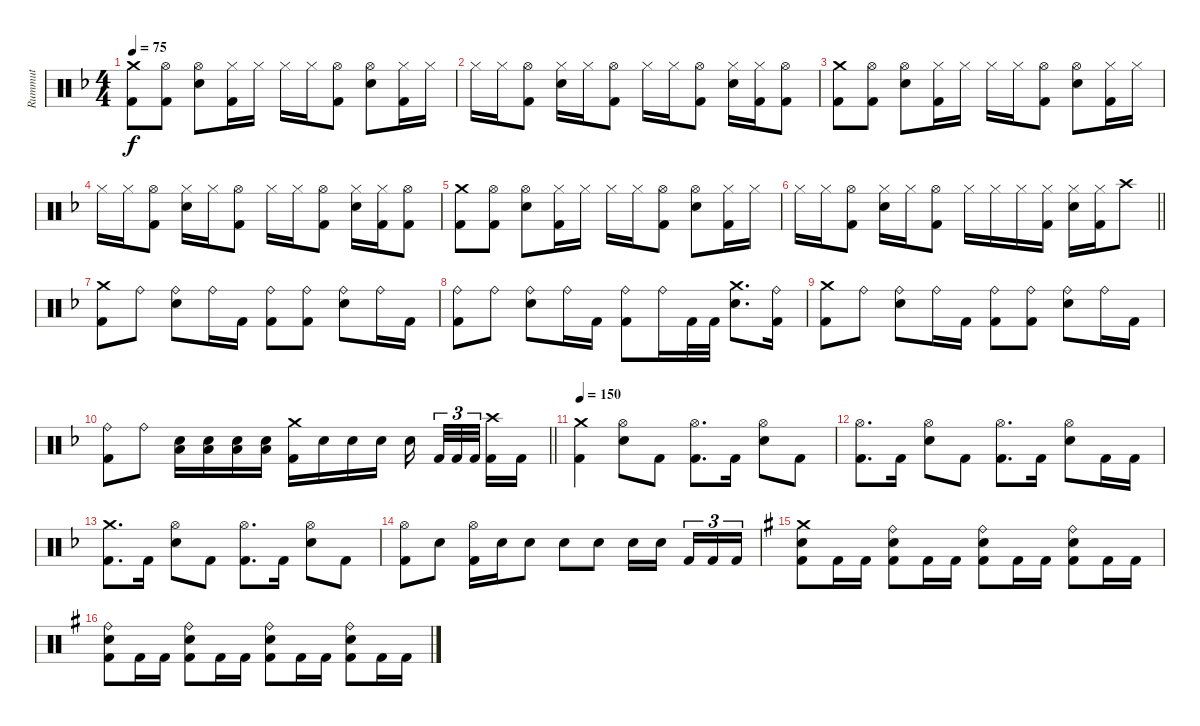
\track ("Rummut" "Rummut") {instrument percussion}
\staff {score}
\articulation defaults
\ts (4 4)
\tempo 75
\clef neutral
\ks dminor
("Crash medium (hit)" "Kick (hit) 2").8{dy f} ("Hi-Hat (open)" "Kick (hit) 2").8 ("Hi-Hat (open)" "Snare (hit) 2").8 ("Hi-Hat (closed)" "Kick (hit) 2").16 "Hi-Hat (closed)".16 "Hi-Hat (closed)".16 "Hi-Hat (closed)".16 ("Hi-Hat (open)" "Kick (hit) 2").8 ("Hi-Hat (open)" "Snare (hit) 2").8 ("Hi-Hat (closed)" "Kick (hit) 2").16 "Hi-Hat (closed)".16 |
"Hi-Hat (closed)".16 "Hi-Hat (closed)".16 ("Hi-Hat (open)" "Kick (hit) 2").8 ("Hi-Hat (closed)" "Snare (hit) 2").16 "Hi-Hat (closed)".16 ("Hi-Hat (open)" "Kick (hit) 2").8 "Hi-Hat (closed)".16 "Hi-Hat (closed)".16 ("Hi-Hat (open)" "Kick (hit) 2").8 ("Hi-Hat (closed)" "Snare (hit) 2").16 ("Hi-Hat (closed)" "Kick (hit) 2").16 ("Hi-Hat (open)" "Kick (hit) 2").8 |
("Crash medium (hit)" "Kick (hit) 2").8 ("Hi-Hat (open)" "Kick (hit) 2").8 ("Hi-Hat (open)" "Snare (hit) 2").8 ("Hi-Hat (closed)" "Kick (hit) 2").16 "Hi-Hat (closed)".16 "Hi-Hat (closed)".16 "Hi-Hat (closed)".16 ("Hi-Hat (open)" "Kick (hit) 2").8 ("Hi-Hat (open)" "Snare (hit) 2").8 ("Hi-Hat (closed)" "Kick (hit) 2").16 "Hi-Hat (closed)".16 |
"Hi-Hat (closed)".16 "Hi-Hat (closed)".16 ("Hi-Hat (open)" "Kick (hit) 2").8 ("Hi-Hat (closed)" "Snare (hit) 2").16 "Hi-Hat (closed)".16 ("Hi-Hat (open)" "Kick (hit) 2").8 "Hi-Hat (closed)".16 "Hi-Hat (closed)".16 ("Hi-Hat (open)" "Kick (hit) 2").8 ("Hi-Hat (closed)" "Snare (hit) 2").16 ("Hi-Hat (closed)" "Kick (hit) 2").16 ("Hi-Hat (open)" "Kick (hit) 2").8 |
("Crash medium (hit)" "Kick (hit) 2").8 ("Hi-Hat (open)" "Kick (hit) 2").8 ("Hi-Hat (open)" "Snare (hit) 2").8 ("Hi-Hat (closed)" "Kick (hit) 2").16 "Hi-Hat (closed)".16 "Hi-Hat (closed)".16 "Hi-Hat (closed)".16 ("Hi-Hat (open)" "Kick (hit) 2").8 ("Hi-Hat (open)" "Snare (hit) 2").8 ("Hi-Hat (closed)" "Kick (hit) 2").16 "Hi-Hat (closed)".16 |
\barLineRight lightlight "Hi-Hat (closed)".16 "Hi-Hat (closed)".16
("Hi-Hat (open)" "Kick (hit) 2").8 ("Hi-Hat (closed)" "Snare (hit) 2").16 "Hi-Hat (closed)".16 ("Hi-Hat (open)" "Kick (hit) 2").8 "Hi-Hat (closed)".16 "Hi-Hat (closed)".16 "Hi-Hat (closed)".16 ("Hi-Hat (closed)" "Kick (hit) 2").16 ("Hi-Hat (closed)" "Snare (hit) 2").16 ("Hi-Hat (closed)" "Kick (hit) 2").16 "Crash high (hit)".8 |
("Crash medium (hit)" "Kick (hit) 2").8 "Ride (bell)".8 ("Ride (bell)" "Snare (hit) 2").8 "Ride (bell)".16 "Kick (hit) 2".16 ("Ride (bell)" "Kick (hit) 2").8 ("Ride (bell)" "Kick (hit) 2").8 ("Ride (bell)" "Snare (hit) 2").8 "Ride (bell)".16 "Kick (hit) 2".16 |
("Ride (bell)" "Kick (hit) 2").8 "Ride (bell)".8 ("Ride (bell)" "Snare (hit) 2").8 "Ride (bell)".16 "Kick (hit) 2".16 ("Ride (bell)" "Kick (hit) 2").8 "Ride (bell)".16 "Kick (hit) 2".32 "Kick (hit) 2".32 ("Crash medium (hit)" "Snare (hit) 2").8{d} ("Ride (bell)" "Kick (hit) 2").16 |
("Crash medium (hit)" "Kick (hit) 2").8 "Ride (bell)".8 ("Ride (bell)" "Snare (hit) 2").8 "Ride (bell)".16 "Kick (hit) 2".16 ("Ride (bell)" "Kick (hit) 2").8 ("Ride (bell)" "Kick (hit) 2").8 ("Ride (bell)" "Snare (hit) 2").8 "Ride (bell)".16 "Kick (hit) 2".16 |
\barLineRight lightlight
("Ride (bell)" "Kick (hit) 2").8 "Ride (bell)".8 ("Snare (hit) 2" "Low Tom (hit)").16 ("Snare (hit) 2" "Low Tom (hit)").16 ("Snare (hit) 2" "Low Tom (hit)").16 ("Snare (hit) 2" "Low Tom (hit)").16 ("Crash medium (hit)" "Kick (hit) 2").16 "Snare (hit) 2".16 "Snare (hit) 2".16 "Snare (hit) 2".16 "Snare (hit) 2".16{beam splitsecondary} "Kick (hit) 2".32{tu (3 2)} "Kick (hit) 2".32{tu (3 2)} "Kick (hit) 2".32{tu (3 2) beam splitsecondary} ("Crash high (hit)" "Kick (hit) 2").16 "Kick (hit) 2".16 |
\tempo 150
("Crash medium (hit)" "Kick (hit) 2").4 ("Hi-Hat (open)" "Snare (hit) 2").8 "Kick (hit) 2".8 ("Hi-Hat (open)" "Kick (hit) 2").8{d} "Kick (hit) 2".16 ("Hi-Hat (open)" "Snare (hit) 2").8 "Kick (hit) 2".8 |
("Hi-Hat (open)" "Kick (hit) 2").8{d} "Kick (hit) 2".16 ("Hi-Hat (open)" "Snare (hit) 2").8 "Kick (hit) 2".8 ("Hi-Hat (open)" "Kick (hit) 2").8{d} "Kick (hit) 2".16 ("Hi-Hat (open)" "Snare (hit) 2").8 "Kick (hit) 2".16 "Kick (hit) 2".16 |
("Crash medium (hit)" "Kick (hit) 2").8{d} "Kick (hit) 2".16 ("Hi-Hat (open)" "Snare (hit) 2").8 "Kick (hit) 2".8 ("Hi-Hat (open)" "Kick (hit) 2").8{d} "Kick (hit) 2".16 ("Hi-Hat (open)" "Snare (hit) 2").8 "Kick (hit) 2".8 |
("Hi-Hat (open)" "Kick (hit) 2").8 "Snare (hit) 2".8 ("Hi-Hat (open)" "Kick (hit) 2").16 "Snare (hit) 2".16 "Snare (hit) 2".8 "Snare (hit) 2".8 "Snare (hit) 2".8 "Snare (hit) 2".16 "Snare (hit) 2".16{beam splitsecondary} "Kick (hit) 2".16{tu (3 2)} "Kick (hit) 2".16{tu (3 2)} "Kick (hit) 2".16{tu (3 2)} |
\ks g
("Crash medium (hit)" "Snare (hit) 2" "Kick (hit) 2").8 "Kick (hit) 2".16 "Kick (hit) 2".16 ("Ride (bell)" "Snare (hit) 2" "Kick (hit) 2").8 "Kick (hit) 2".16 "Kick (hit) 2".16 ("Ride (bell)" "Snare (hit) 2" "Kick (hit) 2").8 "Kick (hit) 2".16 "Kick (hit) 2".16 ("Ride (bell)" "Snare (hit) 2" "Kick (hit) 2").8 "Kick (hit) 2".16 "Kick (hit) 2".16 |
("Ride (bell)" "Snare (hit) 2" "Kick (hit) 2").8 "Kick (hit) 2".16 "Kick (hit) 2".16 ("Ride (bell)" "Snare (hit) 2" "Kick (hit) 2").8 "Kick (hit) 2".16 "Kick (hit) 2".16 ("Ride (bell)" "Snare (hit) 2" "Kick (hit) 2").8 "Kick (hit) 2".16 "Kick (hit) 2".16 ("Ride (bell)" "Snare (hit) 2" "Kick (hit) 2").8 "Kick (hit) 2".16 "Kick (hit) 2".16
